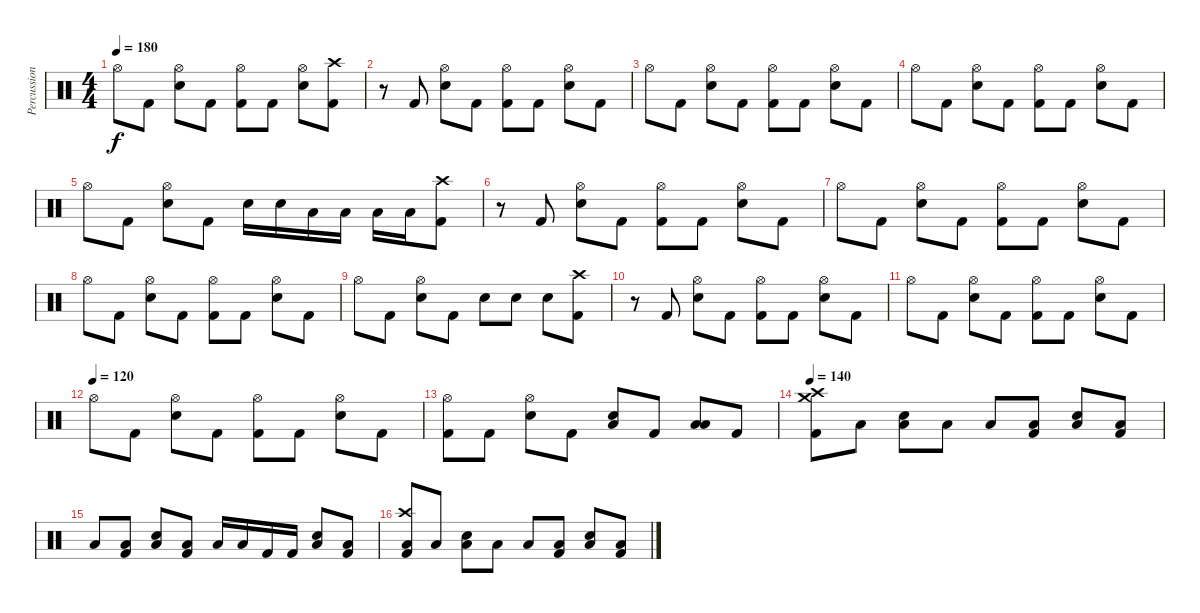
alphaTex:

\track ("Percussion" "Percussion") {instrument percussion}
\staff {score}
\articulation defaults
\ts (4 4)
\tempo 180
\clef neutral
\ks c "Hi-Hat (open)".8{dy f} "Kick (hit) 2".8
("Hi-Hat (open)" "Electric Snare (hit)").8 "Kick (hit) 2".8 ("Hi-Hat (open)" "Kick (hit) 2").8 "Kick (hit) 2".8 ("Hi-Hat (open)" "Electric Snare (hit)").8 ("Crash high (hit)" "Kick (hit) 2").8 |
r.8 "Kick (hit) 2".8 ("Hi-Hat (open)" "Electric Snare (hit)").8 "Kick (hit) 2".8 ("Hi-Hat (open)" "Kick (hit) 2").8 "Kick (hit) 2".8 ("Hi-Hat (open)" "Electric Snare (hit)").8 "Kick (hit) 2".8 |
"Hi-Hat (open)".8 "Kick (hit) 2".8 ("Hi-Hat (open)" "Electric Snare (hit)").8 "Kick (hit) 2".8 ("Hi-Hat (open)" "Kick (hit) 2").8 "Kick (hit) 2".8 ("Hi-Hat (open)" "Electric Snare (hit)").8 "Kick (hit) 2".8 |
"Hi-Hat (open)".8 "Kick (hit) 2".8 ("Hi-Hat (open)" "Electric Snare (hit)").8 "Kick (hit) 2".8 ("Hi-Hat (open)" "Kick (hit) 2").8 "Kick (hit) 2".8 ("Hi-Hat (open)" "Electric Snare (hit)").8 "Kick (hit) 2".8 |
"Hi-Hat (open)".8 "Kick (hit) 2".8 ("Hi-Hat (open)" "Electric Snare (hit)").8 "Kick (hit) 2".8 "Electric Snare (hit)".16 "Electric Snare (hit)".16 "Low Tom (hit)".16 "Low Tom (hit)".16 "Low Floor Tom (hit)".16 "Low Floor Tom (hit)".16 ("Crash high (hit)" "Kick (hit) 2").8 |
r.8 "Kick (hit) 2".8 ("Hi-Hat (open)" "Electric Snare (hit)").8 "Kick (hit) 2".8 ("Hi-Hat (open)" "Kick (hit) 2").8 "Kick (hit) 2".8 ("Hi-Hat (open)" "Electric Snare (hit)").8 "Kick (hit) 2".8 |
"Hi-Hat (open)".8 "Kick (hit) 2".8 ("Hi-Hat (open)" "Electric Snare (hit)").8 "Kick (hit) 2".8 ("Hi-Hat (open)" "Kick (hit) 2").8 "Kick (hit) 2".8 ("Hi-Hat (open)" "Electric Snare (hit)").8 "Kick (hit) 2".8 |
"Hi-Hat (open)".8 "Kick (hit) 2".8 ("Hi-Hat (open)" "Electric Snare (hit)").8 "Kick (hit) 2".8 ("Hi-Hat (open)" "Kick (hit) 2").8 "Kick (hit) 2".8 ("Hi-Hat (open)" "Electric Snare (hit)").8 "Kick (hit) 2".8 |
"Hi-Hat (open)".8 "Kick (hit) 2".8 ("Hi-Hat (open)" "Electric Snare (hit)").8 "Kick (hit) 2".8 "Electric Snare (hit)".8 "Electric Snare (hit)".8 "Electric Snare (hit)".8 ("Crash high (hit)" "Kick (hit) 2").8 |
r.8 "Kick (hit) 2".8 ("Hi-Hat (open)" "Electric Snare (hit)").8 "Kick (hit) 2".8 ("Hi-Hat (open)" "Kick (hit) 2").8 "Kick (hit) 2".8 ("Hi-Hat (open)" "Electric Snare (hit)").8 "Kick (hit) 2".8 |
"Hi-Hat (open)".8 "Kick (hit) 2".8 ("Hi-Hat (open)" "Electric Snare (hit)").8 "Kick (hit) 2".8 ("Hi-Hat (open)" "Kick (hit) 2").8 "Kick (hit) 2".8 ("Hi-Hat (open)" "Electric Snare (hit)").8 "Kick (hit) 2".8 |
\tempo (120)
"Hi-Hat (open)".8 "Kick (hit) 2".8 ("Hi-Hat (open)" "Electric Snare (hit)").8 "Kick (hit) 2".8 ("Hi-Hat (open)" "Kick (hit) 2").8 "Kick (hit) 2".8 ("Hi-Hat (open)" "Electric Snare (hit)").8 "Kick (hit) 2".8 |
("Hi-Hat (open)" "Kick (hit) 2").8 "Kick (hit) 2".8 ("Hi-Hat (open)" "Electric Snare (hit)").8 "Kick (hit) 2".8 ("Low Tom (hit)" "Electric Snare (hit)").8 "Kick (hit) 2".8 ("Low Tom (hit)" "Low Floor Tom (hit)").8 "Kick (hit) 2".8 |
\tempo 140
("Crash high (hit)" "Crash medium (hit)" "Kick (hit) 2").8 "Low Floor Tom (hit)".8 ("Low Floor Tom (hit)" "Electric Snare (hit)").8 "Low Floor Tom (hit)".8 "Low Floor Tom (hit)".8 ("Low Floor Tom (hit)" "Kick (hit) 2").8 ("Low Floor Tom (hit)" "Electric Snare (hit)").8 ("Low Floor Tom (hit)" "Kick (hit) 2").8 |
"Low Floor Tom (hit)".8 ("Low Floor Tom (hit)" "Kick (hit) 2").8 ("Low Floor Tom (hit)" "Electric Snare (hit)").8 ("Low Floor Tom (hit)" "Kick (hit) 2").8 "Low Tom (hit)".16 "Low Tom (hit)".16 "Kick (hit) 2".16 "Kick (hit) 2".16 ("Low Floor Tom (hit)" "Electric Snare (hit)").8 ("Low Floor Tom (hit)" "Kick (hit) 2").8 |
("Crash high (hit)" "Low Floor Tom (hit)" "Kick (hit) 2").8 "Low Floor Tom (hit)".8 ("Low Floor Tom (hit)" "Electric Snare (hit)").8 "Low Floor Tom (hit)".8 "Low Floor Tom (hit)".8 ("Low Floor Tom (hit)" "Kick (hit) 2").8 ("Low Floor Tom (hit)" "Electric Snare (hit)").8 ("Low Floor Tom (hit)" "Kick (hit) 2").8
